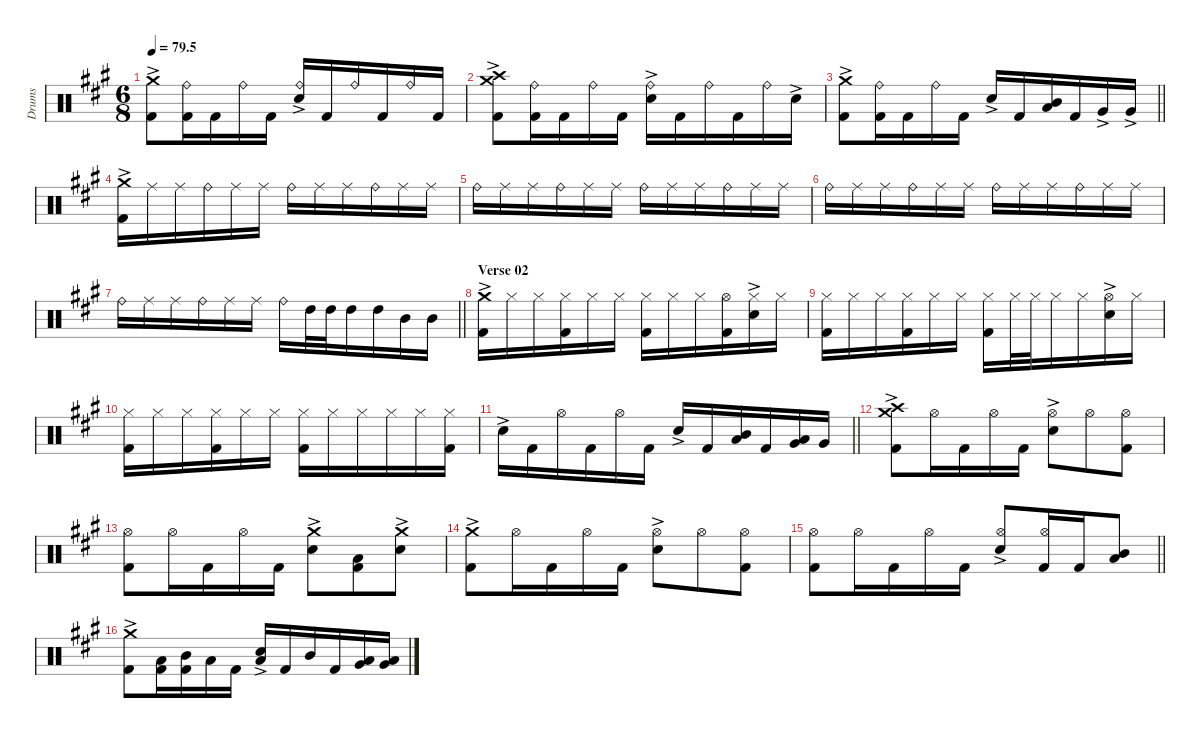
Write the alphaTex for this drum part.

\defaultSystemsLayout 4
\hideDynamics
\bracketExtendMode nobrackets
\otherSystemsTrackNameOrientation horizontal
\track ("Drumkit-show" "Drums") {mute instrument percussion}
\staff {score}
\articulation defaults
\ts (6 8)
\tempo
79.5
\accidentals auto
\clef neutral
\ottava regular
\simile none
\ks a
("Crash medium (hit)"{ac acc forcenatural} "Kick (hit) 2"{acc forcenatural}).8{dy f beam Down} ("Ride (bell)"{acc forcenatural} "Kick (hit) 2"{acc forcenatural}).16{beam Down} "Kick (hit) 2"{acc forcenatural}.16{beam Down} "Ride (bell)"{acc forcenatural}.16{beam Down} "Kick (hit) 2"{acc forcenatural}.16{beam Down} ("Ride (bell)"{acc forcenatural} "Snare (hit) 2"{ac acc forcenatural}).16{beam Up} "Kick (hit) 2"{acc forcenatural}.16{beam Up} "Ride (bell)"{acc forcenatural}.16{beam Up} "Kick (hit) 2"{acc forcenatural}.16{beam Up} "Ride (bell)"{acc forcenatural}.16{beam Up} "Kick (hit) 2"{acc forcenatural}.16{beam Up} |
("Crash medium (hit)"{ac acc forcenatural} "Crash high (hit)"{acc forcenatural} "Kick (hit) 2"{acc forcenatural}).8{beam Down} ("Ride (bell)"{acc forcenatural} "Kick (hit) 2"{acc forcenatural}).16{beam Down} "Kick (hit) 2"{acc forcenatural}.16{beam Down} "Ride (bell)"{acc forcenatural}.16{beam Down} "Kick (hit) 2"{acc forcenatural}.16{beam Down} ("Ride (bell)"{acc forcenatural} "Snare (hit) 2"{ac acc forcenatural}).16{beam Down} "Kick (hit) 2"{acc forcenatural}.16{beam Down} "Ride (bell)"{acc forcenatural}.16{beam Down} "Kick (hit) 2"{acc forcenatural}.16{beam Down} "Ride (bell)"{acc forcenatural}.16{beam Down} "Snare (hit) 2"{ac acc forcenatural}.16{beam Down} |
\barLineRight lightlight
("Crash medium (hit)"{ac acc forcenatural} "Kick (hit) 2"{acc forcenatural}).8{beam Down} ("Ride (bell)"{acc forcenatural} "Kick (hit) 2"{acc forcenatural}).16{beam Down} "Kick (hit) 2"{acc forcenatural}.16{beam Down} "Ride (bell)"{acc forcenatural}.16{beam Down} "Kick (hit) 2"{acc forcenatural}.16{beam Down} "Snare (hit) 2"{ac acc forcenatural}.16{beam Up} "Kick (hit) 2"{acc forcenatural}.16{beam Up} ("Mid Tom (hit)"{acc forcenatural} "Low Tom (hit)"{acc forcenatural}).16{beam Up} "Kick (hit) 2"{acc forcenatural}.16{beam Up} "Very Low Tom (hit)"{ac acc forcenatural}.16{beam Up} "Very Low Tom (hit)"{ac acc forcenatural}.16{beam Up} |
("Crash medium (hit)"{ac acc forcenatural} "Kick (hit) 2"{acc forcenatural}).16{beam Down} "Ride (middle)"{acc forcenatural}.16{beam Down} "Ride (middle)"{acc forcenatural}.16{beam Down} "Ride (bell)"{acc forcenatural}.16{beam Down} "Ride (middle)"{acc forcenatural}.16{beam Down} "Ride (middle)"{acc forcenatural}.16{beam Down} "Ride (bell)"{acc forcenatural}.16{beam Down} "Ride (middle)"{acc forcenatural}.16{beam Down} "Ride (middle)"{acc forcenatural}.16{beam Down} "Ride (bell)"{acc forcenatural}.16{beam Down} "Ride (middle)"{acc forcenatural}.16{beam Down} "Ride (middle)"{acc forcenatural}.16{beam Down} |
"Ride (bell)"{acc forcenatural}.16{beam Down} "Ride (middle)"{acc forcenatural}.16{beam Down} "Ride (middle)"{acc forcenatural}.16{beam Down} "Ride (bell)"{acc forcenatural}.16{beam Down} "Ride (middle)"{acc forcenatural}.16{beam Down} "Ride (middle)"{acc forcenatural}.16{beam Down} "Ride (bell)"{acc forcenatural}.16{beam Down} "Ride (middle)"{acc forcenatural}.16{beam Down} "Ride (middle)"{acc forcenatural}.16{beam Down} "Ride (bell)"{acc forcenatural}.16{beam Down} "Ride (middle)"{acc forcenatural}.16{beam Down} "Ride (middle)"{acc forcenatural}.16{beam Down} |
\scale
0.345779 "Ride (bell)"{acc forcenatural}.16{beam Down} "Ride (middle)"{acc forcenatural}.16{beam Down} "Ride (middle)"{acc forcenatural}.16{beam Down} "Ride (bell)"{acc forcenatural}.16{beam Down} "Ride (middle)"{acc forcenatural}.16{beam Down} "Ride (middle)"{acc forcenatural}.16{beam Down} "Ride (bell)"{acc forcenatural}.16{beam Down} "Ride (middle)"{acc forcenatural}.16{beam Down} "Ride (middle)"{acc forcenatural}.16{beam Down} "Ride (bell)"{acc forcenatural}.16{beam Down} "Ride (middle)"{acc forcenatural}.16{beam Down} "Ride (middle)"{acc forcenatural}.16{beam Down} |
\scale
0.342532
\barLineRight lightlight "Ride (bell)"{acc forcenatural}.16{beam Down} "Ride (middle)"{acc forcenatural}.16{beam Down} "Ride (middle)"{acc forcenatural}.16{beam Down} "Ride (bell)"{acc forcenatural}.16{beam Down} "Ride (middle)"{acc forcenatural}.16{beam Down} "Ride (middle)"{acc forcenatural}.16{beam Down} "Ride (bell)"{acc forcenatural}.16{beam Down} "High Tom (hit)"{acc forcenatural}.32{beam Down} "High Tom (hit)"{acc forcenatural}.32{beam Down} "High Tom (hit)"{acc forcenatural}.16{beam Down} "High Tom (hit)"{acc forcenatural}.16{beam Down} "Mid Tom (hit)"{acc forcenatural}.16{beam Down} "Mid Tom (hit)"{acc forcenatural}.16{beam Down}
|
\section ("" "Verse 02")
\scale
0.311688 ("Crash medium (hit)"{ac acc forcenatural} "Kick (hit) 2"{acc forcenatural}).16{beam Down} "Hi-Hat (closed)"{acc forcenatural}.16{beam Down} "Hi-Hat (closed)"{acc forcenatural}.16{beam Down} ("Hi-Hat (closed)"{acc forcenatural} "Kick (hit) 2"{acc forcenatural}).16{beam Down} "Hi-Hat (closed)"{acc forcenatural}.16{beam Down} "Hi-Hat (closed)"{acc forcenatural}.16{beam Down} ("Hi-Hat (closed)"{acc forcenatural} "Kick (hit) 2"{acc forcenatural}).16{beam Down} "Hi-Hat (closed)"{acc forcenatural}.16{beam Down} "Hi-Hat (closed)"{acc forcenatural}.16{beam Down} ("Kick (hit) 2"{acc forcenatural} "Hi-Hat (open)"{acc forcenatural}).16{beam Down} ("Hi-Hat (closed)"{acc forcenatural} "Snare (hit) 2"{ac acc forcenatural}).16{beam Down} "Hi-Hat (closed)"{acc forcenatural}.16{beam Down} |
("Hi-Hat (closed)"{acc forcenatural} "Kick (hit) 2"{acc forcenatural}).16{beam Down} "Hi-Hat (closed)"{acc forcenatural}.16{beam Down} "Hi-Hat (closed)"{acc forcenatural}.16{beam Down} ("Hi-Hat (closed)"{acc forcenatural} "Kick (hit) 2"{acc forcenatural}).16{beam Down} "Hi-Hat (closed)"{acc forcenatural}.16{beam Down} "Hi-Hat (closed)"{acc forcenatural}.16{beam Down} ("Hi-Hat (closed)"{acc forcenatural} "Kick (hit) 2"{acc forcenatural}).16{beam Down} "Hi-Hat (closed)"{acc forcenatural}.32{beam Down} "Hi-Hat (closed)"{acc forcenatural}.32{beam Down} "Hi-Hat (closed)"{acc forcenatural}.16{beam Down} "Hi-Hat (closed)"{acc forcenatural}.16{beam Down} ("Hi-Hat (open)"{acc forcenatural} "Snare (hit) 2"{ac acc forcenatural}).16{beam Down} "Hi-Hat (closed)"{acc forcenatural}.16{beam Down} |
("Hi-Hat (closed)"{acc forcenatural} "Kick (hit) 2"{acc forcenatural}).16{beam Down} "Hi-Hat (closed)"{acc forcenatural}.16{beam Down} "Hi-Hat (closed)"{acc forcenatural}.16{beam Down} ("Hi-Hat (closed)"{acc forcenatural} "Kick (hit) 2"{acc forcenatural}).16{beam Down} "Hi-Hat (closed)"{acc forcenatural}.16{beam Down} "Hi-Hat (closed)"{acc forcenatural}.16{beam Down} ("Hi-Hat (closed)"{acc forcenatural} "Kick (hit) 2"{acc forcenatural}).16{beam Down} "Hi-Hat (closed)"{acc forcenatural}.16{beam Down} "Hi-Hat (closed)"{acc forcenatural}.16{beam Down} "Hi-Hat (closed)"{acc forcenatural}.16{beam Down} "Hi-Hat (closed)"{acc forcenatural}.16{beam Down} ("Hi-Hat (closed)"{acc forcenatural} "Kick (hit) 2"{acc forcenatural}).16{beam Down} |
\barLineRight lightlight "Snare (hit) 2"{ac acc forcenatural}.16{beam Down} "Kick (hit) 2"{acc forcenatural}.16{beam Down} "Hi-Hat (open)"{acc forcenatural}.16{beam Down} "Kick (hit) 2"{acc forcenatural}.16{beam Down} "Hi-Hat (open)"{acc forcenatural}.16{beam Down} "Kick (hit) 2"{acc forcenatural}.16{beam Down} "Snare (hit) 2"{ac acc forcenatural}.16{beam Up} "Kick (hit) 2"{acc forcenatural}.16{beam Up}
("Mid Tom (hit)"{acc forcenatural} "Low Tom (hit)"{acc forcenatural}).16{beam Up} "Kick (hit) 2"{acc forcenatural}.16{beam Up} ("Low Tom (hit)"{acc forcenatural} "Very Low Tom (hit)"{acc forcenatural}).16{beam Up} "Very Low Tom (hit)"{acc forcenatural}.16{beam Up} |
("Crash medium (hit)"{ac acc forcenatural} "Crash high (hit)"{acc forcenatural} "Kick (hit) 2"{acc forcenatural}).8{beam Down} "Hi-Hat (open)"{acc forcenatural}.16{beam Down} "Kick (hit) 2"{acc forcenatural}.16{beam Down} "Hi-Hat (open)"{acc forcenatural}.16{beam Down} "Kick (hit) 2"{acc forcenatural}.16{beam Down} ("Hi-Hat (open)"{acc forcenatural} "Snare (hit) 2"{ac acc forcenatural}).8{beam Down} "Hi-Hat (open)"{acc forcenatural}.8{beam Down} ("Hi-Hat (open)"{acc forcenatural} "Kick (hit) 2"{acc forcenatural}).8{beam Down} |
("Hi-Hat (open)"{acc forcenatural} "Kick (hit) 2"{acc forcenatural}).8{beam Down} "Hi-Hat (open)"{acc forcenatural}.16{beam Down} "Kick (hit) 2"{acc forcenatural}.16{beam Down} "Hi-Hat (open)"{acc forcenatural}.16{beam Down} "Kick (hit) 2"{acc forcenatural}.16{beam Down} ("Crash medium (hit)"{ac acc forcenatural} "Snare (hit) 2"{ac acc forcenatural}).8{beam Down} ("Low Tom (hit)"{acc forcenatural} "Kick (hit) 2"{acc forcenatural}).8{beam Down} ("Crash medium (hit)"{ac acc forcenatural} "Snare (hit) 2"{ac acc forcenatural}).8{beam Down} |
("Crash medium (hit)"{ac acc forcenatural} "Kick (hit) 2"{acc forcenatural}).8{beam Down} "Hi-Hat (open)"{acc forcenatural}.16{beam Down} "Kick (hit) 2"{acc forcenatural}.16{beam Down} "Hi-Hat (open)"{acc forcenatural}.16{beam Down} "Kick (hit) 2"{acc forcenatural}.16{beam Down} ("Hi-Hat (open)"{acc forcenatural} "Snare (hit) 2"{ac acc forcenatural}).8{beam Down} "Hi-Hat (open)"{acc forcenatural}.8{beam Down} ("Hi-Hat (open)"{acc forcenatural} "Kick (hit) 2"{acc forcenatural}).8{beam Down} |
\barLineRight lightlight
("Hi-Hat (open)"{acc forcenatural} "Kick (hit) 2"{acc forcenatural}).8{beam Down} "Hi-Hat (open)"{acc forcenatural}.16{beam Down} "Kick (hit) 2"{acc forcenatural}.16{beam Down} "Hi-Hat (open)"{acc forcenatural}.16{beam Down} "Kick (hit) 2"{acc forcenatural}.16{beam Down} ("Hi-Hat (open)"{acc forcenatural} "Snare (hit) 2"{ac acc forcenatural}).8{beam Up} ("Hi-Hat (open)"{acc forcenatural} "Kick (hit) 2"{acc forcenatural}).16{beam Up} "Kick (hit) 2"{acc forcenatural}.16{beam Up} ("Mid Tom (hit)"{acc forcenatural} "Low Tom (hit)"{acc forcenatural}).8{beam Up} |
("Crash medium (hit)"{ac acc forcenatural} "Kick (hit) 2"{acc forcenatural}).8{beam Down} ("Low Tom (hit)"{acc forcenatural} "Kick (hit) 2"{acc forcenatural}).16{beam Down} ("Mid Tom (hit)"{acc forcenatural} "Kick (hit) 2"{acc forcenatural}).16{beam Down} "Low Tom (hit)"{acc forcenatural}.16{beam Down} "Kick (hit) 2"{acc forcenatural}.16{beam Down} ("Snare (hit) 2"{ac acc forcenatural} "Low Tom (hit)"{acc forcenatural}).16{beam Up} "Kick (hit) 2"{acc forcenatural}.16{beam Up} "Mid Tom (hit)"{acc forcenatural}.16{beam Up} "Kick (hit) 2"{acc forcenatural}.16{beam Up} ("Low Tom (hit)"{acc forcenatural} "Very Low Tom (hit)"{acc forcenatural}).16{beam Up} ("Low Tom (hit)"{acc forcenatural} "Very Low Tom (hit)"{acc forcenatural}).16{beam Up}
